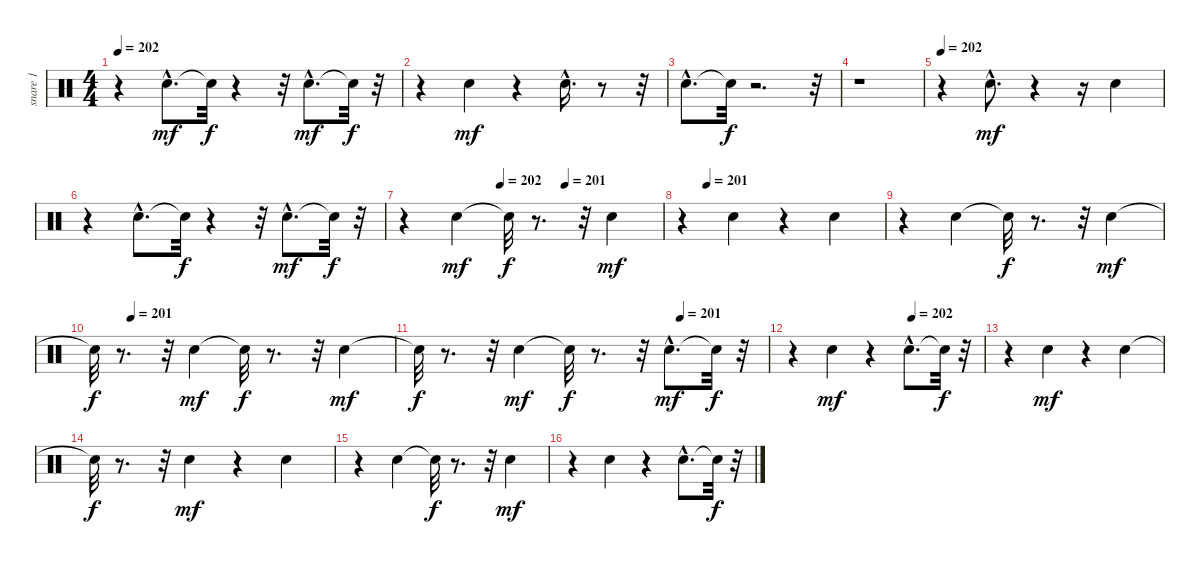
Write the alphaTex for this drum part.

\track ("snare 1" "snare 1") {instrument percussion}
\staff {score}
\articulation defaults
\ts (4 4)
\tempo 202
\clef neutral
\ks c
r.4{dy mf} "Snare (hit) 2"{hac}.8{d} "Snare (hit)"{t}.32{dy f} r.4 r.32 "Snare (hit) 2"{hac}.8{d dy mf} "Snare (hit)"{t}.32{dy f} r.32 |
r.4 "Snare (hit) 2".4{dy mf} r.4 "Snare (hit) 2"{hac}.16{d} r.8 r.32 |
"Snare (hit) 2"{hac}.8{d} "Snare (hit)"{t}.32{dy f} r.2{d} r.32 |
r.1 |
\tempo 202
r.4 "Snare (hit) 2"{hac}.8{d dy mf} r.4 r.16 "Snare (hit) 2".4 |
r.4 "Snare (hit) 2"{hac}.8{d} "Snare (hit)"{t}.32{dy f} r.4 r.32 "Snare (hit) 2"{hac}.8{d dy mf} "Snare (hit)"{t}.32{dy f} r.32 |
\tempo (202 0.375)
\tempo (201 0.625)
r.4 "Snare (hit) 2".4{dy mf} "Snare (hit)"{t}.32{dy f} r.8{d} r.32 "Snare (hit) 2".4{dy mf} |
\tempo (201 0.125)
r.4 "Snare (hit) 2".4 r.4 "Snare (hit) 2".4 |
r.4 "Snare (hit) 2".4 "Snare (hit)"{t}.32{dy f} r.8{d} r.32 "Snare (hit) 2".4{dy mf} |
\tempo (201 0.125)
"Snare (hit)"{t}.32{dy f} r.8{d} r.32 "Snare (hit) 2".4{dy mf} "Snare (hit)"{t}.32{dy f} r.8{d} r.32 "Snare (hit) 2".4{dy mf} |
\tempo (201 0.75)
"Snare (hit)"{t}.32{dy f} r.8{d} r.32 "Snare (hit) 2".4{dy mf} "Snare (hit)"{t}.32{dy f} r.8{d} r.32 "Snare (hit) 2"{hac}.8{d dy mf} "Snare (hit)"{t}.32{dy f} r.32 |
\tempo (202 0.625)
r.4 "Snare (hit) 2".4{dy mf} r.4 "Snare (hit) 2"{hac}.8{d} "Snare (hit)"{t}.32{dy f} r.32 |
r.4 "Snare (hit) 2".4{dy mf} r.4 "Snare (hit) 2".4 |
"Snare (hit)"{t}.32{dy f} r.8{d} r.32 "Snare (hit) 2".4{dy mf} r.4 "Snare (hit) 2".4 |
r.4 "Snare (hit) 2".4 "Snare (hit)"{t}.32{dy f} r.8{d} r.32 "Snare (hit) 2".4{dy mf} |
r.4 "Snare (hit) 2".4 r.4 "Snare (hit) 2"{hac}.8{d} "Snare (hit)"{t}.32{dy f} r.32
